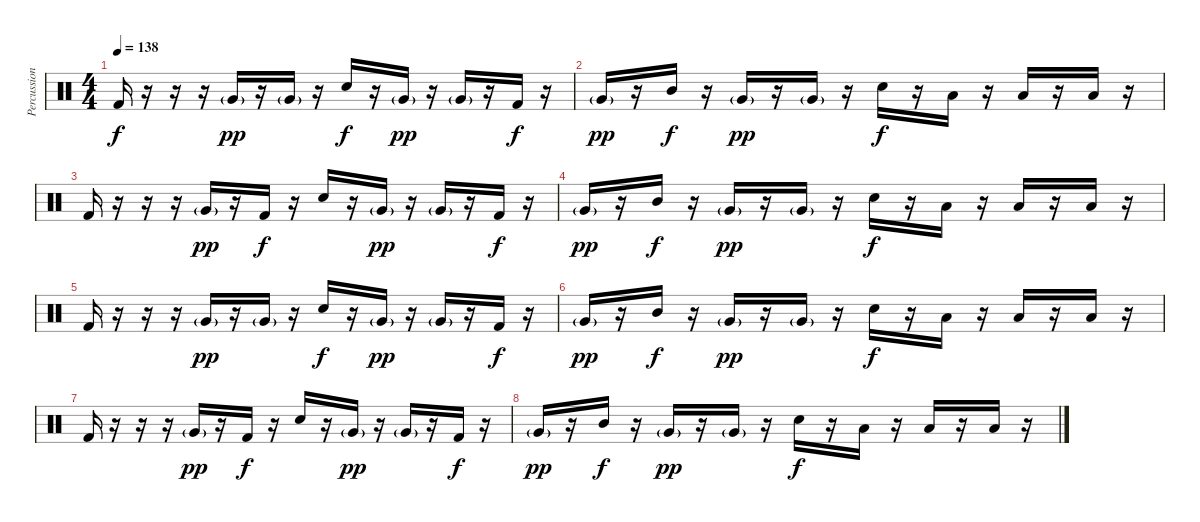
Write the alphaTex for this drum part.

\track ("Percussion" "Percussion") {instrument percussion}
\staff {score}
\articulation defaults
\ts (4 4)
\tempo 138
\clef neutral
\ks c "Kick (hit) 2".16{dy f volume 3}
r.16 r.16 r.16 "Very Low Tom (hit)"{g}.16{dy pp} r.16 "Very Low Tom (hit)"{g}.16 r.16 "Electric Snare (hit)".16{dy f} r.16 "Very Low Tom (hit)"{g}.16{dy pp} r.16 "Very Low Tom (hit)"{g}.16 r.16 "Kick (hit) 2".16{dy f} r.16 |
"Very Low Tom (hit)"{g}.16{dy pp} r.16 "Mid Tom (hit)".16{dy f} r.16 "Very Low Tom (hit)"{g}.16{dy pp} r.16 "Very Low Tom (hit)"{g}.16 r.16 "Electric Snare (hit)".16{dy f} r.16 "Low Tom (hit)".16 r.16 "Low Tom (hit)".16 r.16 "Low Tom (hit)".16 r.16 |
"Kick (hit) 2".16 r.16 r.16 r.16 "Very Low Tom (hit)"{g}.16{dy pp} r.16 "Kick (hit) 2".16{dy f} r.16 "Electric Snare (hit)".16 r.16 "Very Low Tom (hit)"{g}.16{dy pp} r.16 "Very Low Tom (hit)"{g}.16 r.16 "Kick (hit) 2".16{dy f} r.16 |
"Very Low Tom (hit)"{g}.16{dy pp} r.16 "Mid Tom (hit)".16{dy f} r.16 "Very Low Tom (hit)"{g}.16{dy pp} r.16 "Very Low Tom (hit)"{g}.16 r.16 "Electric Snare (hit)".16{dy f} r.16 "Low Tom (hit)".16 r.16 "Low Tom (hit)".16 r.16 "Low Tom (hit)".16 r.16 |
"Kick (hit) 2".16{volume 0} r.16 r.16 r.16 "Very Low Tom (hit)"{g}.16{dy pp} r.16 "Very Low Tom (hit)"{g}.16 r.16 "Electric Snare (hit)".16{dy f} r.16 "Very Low Tom (hit)"{g}.16{dy pp} r.16 "Very Low Tom (hit)"{g}.16 r.16 "Kick (hit) 2".16{dy f} r.16 |
"Very Low Tom (hit)"{g}.16{dy pp} r.16 "Mid Tom (hit)".16{dy f} r.16 "Very Low Tom (hit)"{g}.16{dy pp} r.16 "Very Low Tom (hit)"{g}.16 r.16 "Electric Snare (hit)".16{dy f} r.16 "Low Tom (hit)".16 r.16 "Low Tom (hit)".16 r.16 "Low Tom (hit)".16 r.16 |
"Kick (hit) 2".16 r.16 r.16 r.16 "Very Low Tom (hit)"{g}.16{dy pp} r.16 "Kick (hit) 2".16{dy f} r.16 "Electric Snare (hit)".16 r.16 "Very Low Tom (hit)"{g}.16{dy pp} r.16 "Very Low Tom (hit)"{g}.16 r.16 "Kick (hit) 2".16{dy f} r.16 |
"Very Low Tom (hit)"{g}.16{dy pp} r.16 "Mid Tom (hit)".16{dy f} r.16 "Very Low Tom (hit)"{g}.16{dy pp} r.16 "Very Low Tom (hit)"{g}.16 r.16 "Electric Snare (hit)".16{dy f} r.16 "Low Tom (hit)".16 r.16 "Low Tom (hit)".16 r.16 "Low Tom (hit)".16 r.16
